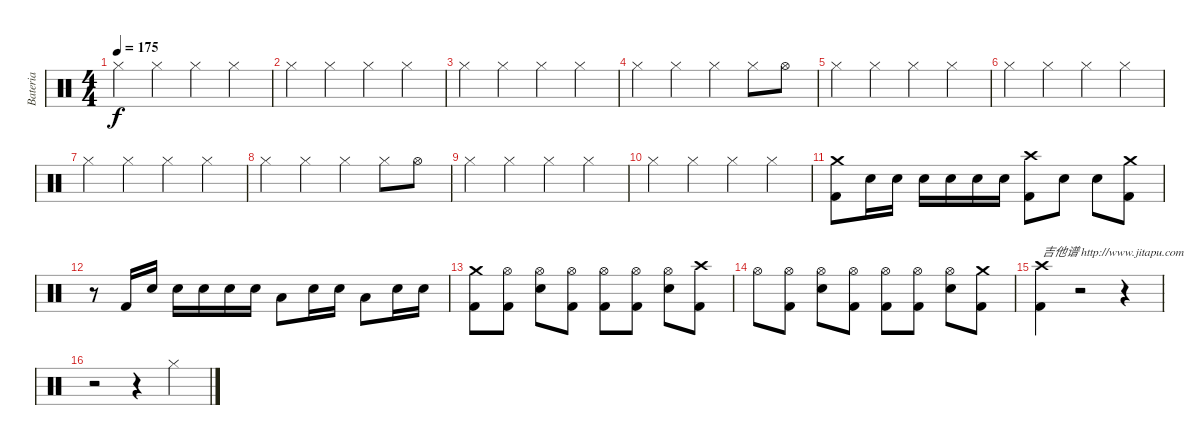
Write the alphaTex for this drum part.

\track ("Bateria" "Bateria") {instrument percussion}
\staff {score}
\articulation defaults
\ts (4 4)
\tempo 175
\clef neutral
\ks c "Hi-Hat (closed)".4{dy f} "Hi-Hat (closed)".4 "Hi-Hat (closed)".4 "Hi-Hat (closed)".4
|
"Hi-Hat (closed)".4 "Hi-Hat (closed)".4 "Hi-Hat (closed)".4 "Hi-Hat (closed)".4 |
"Hi-Hat (closed)".4 "Hi-Hat (closed)".4 "Hi-Hat (closed)".4 "Hi-Hat (closed)".4 |
"Hi-Hat (closed)".4 "Hi-Hat (closed)".4 "Hi-Hat (closed)".4 "Hi-Hat (closed)".8 "Hi-Hat (open)".8 |
"Hi-Hat (closed)".4 "Hi-Hat (closed)".4 "Hi-Hat (closed)".4 "Hi-Hat (closed)".4 |
"Hi-Hat (closed)".4 "Hi-Hat (closed)".4 "Hi-Hat (closed)".4 "Hi-Hat (closed)".4 |
"Hi-Hat (closed)".4 "Hi-Hat (closed)".4 "Hi-Hat (closed)".4 "Hi-Hat (closed)".4 |
"Hi-Hat (closed)".4 "Hi-Hat (closed)".4 "Hi-Hat (closed)".4 "Hi-Hat (closed)".8 "Hi-Hat (open)".8 |
"Hi-Hat (closed)".4 "Hi-Hat (closed)".4 "Hi-Hat (closed)".4 "Hi-Hat (closed)".4 |
"Hi-Hat (closed)".4 "Hi-Hat (closed)".4 "Hi-Hat (closed)".4 "Hi-Hat (closed)".4 |
("Kick (hit) 2" "Crash medium (hit)").8 "Snare (hit) 2".16 "Snare (hit) 2".16 "Snare (hit) 2".16 "Snare (hit) 2".16 "Snare (hit) 2".16 "Snare (hit) 2".16 ("Kick (hit) 2" "Crash high (hit)").8 "Snare (hit) 2".8 "Snare (hit) 2".8 ("Kick (hit) 2" "Crash medium (hit)").8 |
r.8 "Kick (hit) 2".16 "Snare (hit) 2".16 "Snare (hit) 2".16 "Snare (hit) 2".16 "Snare (hit) 2".16 "Snare (hit) 2".16 "Low Tom (hit)".8 "Snare (hit) 2".16 "Snare (hit) 2".16 "Low Tom (hit)".8 "Snare (hit) 2".16 "Snare (hit) 2".16 |
("Kick (hit) 2" "Crash medium (hit)").8 ("Kick (hit) 2" "Hi-Hat (open)").8 ("Snare (hit) 2" "Hi-Hat (open)").8 ("Kick (hit) 2" "Hi-Hat (open)").8 ("Kick (hit) 2" "Hi-Hat (open)").8 ("Kick (hit) 2" "Hi-Hat (open)").8 ("Snare (hit) 2" "Hi-Hat (open)").8 ("Kick (hit) 2" "Crash high (hit)").8 |
"Hi-Hat (open)".8 ("Kick (hit) 2" "Hi-Hat (open)").8 ("Snare (hit) 2" "Hi-Hat (open)").8 ("Kick (hit) 2" "Hi-Hat (open)").8 ("Kick (hit) 2" "Hi-Hat (open)").8 ("Kick (hit) 2" "Hi-Hat (open)").8 ("Snare (hit) 2" "Hi-Hat (open)").8 ("Kick (hit) 2" "Crash medium (hit)").8 |
("Kick (hit) 2" "Crash high (hit)").4{txt "吉他谱 http://www.jitapu.com"} r.2 r.4 |
r.2 r.4 "Hi-Hat (closed)".4
